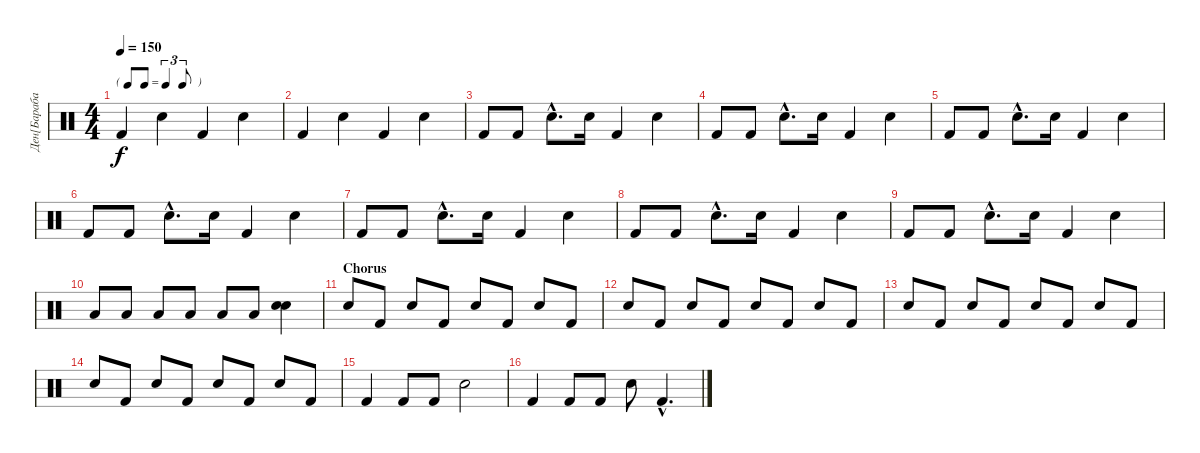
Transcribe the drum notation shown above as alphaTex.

\track ("Ден[Барабаны]" "Ден[Бараба") {instrument percussion}
\staff {score}
\articulation defaults
\ts (4 4)
\tf triplet8th
\tempo 150
\clef neutral
\ks c "Kick (hit) 2".4{dy f} "Electric Snare (hit)".4 "Kick (hit) 2".4 "Electric Snare (hit)".4
|
"Kick (hit) 2".4 "Electric Snare (hit)".4 "Kick (hit) 2".4 "Electric Snare (hit)".4 |
"Kick (hit) 2".8 "Kick (hit) 2".8 "Electric Snare (hit)"{hac}.8{d} "Electric Snare (hit)".16 "Kick (hit) 2".4 "Electric Snare (hit)".4 |
"Kick (hit) 2".8 "Kick (hit) 2".8 "Electric Snare (hit)"{hac}.8{d} "Electric Snare (hit)".16 "Kick (hit) 2".4 "Electric Snare (hit)".4 |
"Kick (hit) 2".8 "Kick (hit) 2".8 "Electric Snare (hit)"{hac}.8{d} "Electric Snare (hit)".16 "Kick (hit) 2".4 "Electric Snare (hit)".4 |
"Kick (hit) 2".8 "Kick (hit) 2".8 "Electric Snare (hit)"{hac}.8{d} "Electric Snare (hit)".16 "Kick (hit) 2".4 "Electric Snare (hit)".4 |
"Kick (hit) 2".8 "Kick (hit) 2".8 "Electric Snare (hit)"{hac}.8{d} "Electric Snare (hit)".16 "Kick (hit) 2".4 "Electric Snare (hit)".4 |
"Kick (hit) 2".8 "Kick (hit) 2".8 "Electric Snare (hit)"{hac}.8{d} "Electric Snare (hit)".16 "Kick (hit) 2".4 "Electric Snare (hit)".4 |
"Kick (hit) 2".8 "Kick (hit) 2".8 "Electric Snare (hit)"{hac}.8{d} "Electric Snare (hit)".16 "Kick (hit) 2".4 "Electric Snare (hit)".4 |
"Low Floor Tom (hit)".8 "Low Floor Tom (hit)".8 "Low Floor Tom (hit)".8 "Low Floor Tom (hit)".8 "Low Floor Tom (hit)".8 "Low Floor Tom (hit)".8 ("Electric Snare (hit)" "Electric Snare (hit)").4 |
\section ("" "Chorus")
"Electric Snare (hit)".8 "Kick (hit) 2".8 "Electric Snare (hit)".8 "Kick (hit) 2".8 "Electric Snare (hit)".8 "Kick (hit) 2".8 "Electric Snare (hit)".8 "Kick (hit) 2".8 |
"Electric Snare (hit)".8 "Kick (hit) 2".8 "Electric Snare (hit)".8 "Kick (hit) 2".8 "Electric Snare (hit)".8 "Kick (hit) 2".8 "Electric Snare (hit)".8 "Kick (hit) 2".8 |
"Electric Snare (hit)".8 "Kick (hit) 2".8 "Electric Snare (hit)".8 "Kick (hit) 2".8 "Electric Snare (hit)".8 "Kick (hit) 2".8 "Electric Snare (hit)".8 "Kick (hit) 2".8 |
"Electric Snare (hit)".8 "Kick (hit) 2".8 "Electric Snare (hit)".8 "Kick (hit) 2".8 "Electric Snare (hit)".8 "Kick (hit) 2".8 "Electric Snare (hit)".8 "Kick (hit) 2".8 |
"Kick (hit) 2".4 "Kick (hit) 2".8 "Kick (hit) 2".8 "Electric Snare (hit)".2 |
"Kick (hit) 2".4 "Kick (hit) 2".8 "Kick (hit) 2".8 "Electric Snare (hit)".8 "Kick (hit) 2"{hac}.4{d}
